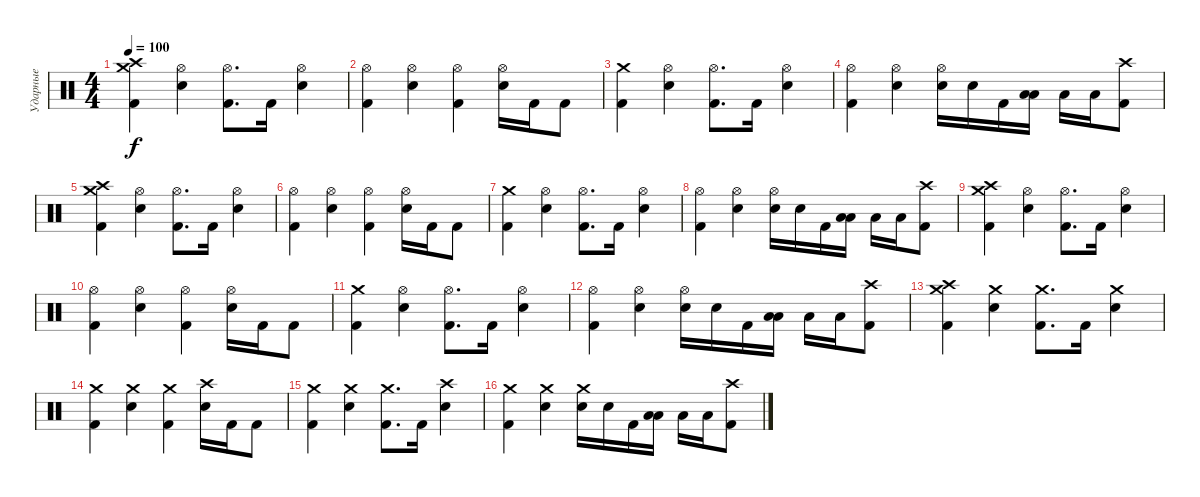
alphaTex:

\track ("Ударные" "Ударные") {instrument percussion}
\staff {score}
\articulation defaults
\ts (4 4)
\tempo 100
\clef neutral
\ks c
("Crash medium (hit)" "Crash high (hit)" "Kick (hit) 2").4{dy f} ("Hi-Hat (open)" "Snare (hit) 2").4 ("Hi-Hat (open)" "Kick (hit) 2").8{d} "Kick (hit) 2".16 ("Hi-Hat (open)" "Snare (hit) 2").4 |
("Hi-Hat (open)" "Kick (hit) 2").4 ("Hi-Hat (open)" "Snare (hit) 2").4 ("Hi-Hat (open)" "Kick (hit) 2").4 ("Hi-Hat (open)" "Snare (hit) 2").16 "Kick (hit) 2".16 "Kick (hit) 2".8 |
("Crash medium (hit)" "Kick (hit) 2").4 ("Hi-Hat (open)" "Snare (hit) 2").4 ("Hi-Hat (open)" "Kick (hit) 2").8{d} "Kick (hit) 2".16 ("Hi-Hat (open)" "Snare (hit) 2").4 |
("Hi-Hat (open)" "Kick (hit) 2").4 ("Hi-Hat (open)" "Snare (hit) 2").4 ("Hi-Hat (open)" "Electric Snare (hit)").16 "Electric Snare (hit)".16 "Kick (hit) 2".16 ("Low Tom (hit)" "Low Floor Tom (hit)").16 "Low Floor Tom (hit)".16 "Low Floor Tom (hit)".16 ("Crash high (hit)" "Kick (hit) 2").8 |
("Crash medium (hit)" "Crash high (hit)" "Kick (hit) 2").4 ("Hi-Hat (open)" "Snare (hit) 2").4 ("Hi-Hat (open)" "Kick (hit) 2").8{d} "Kick (hit) 2".16 ("Hi-Hat (open)" "Snare (hit) 2").4 |
("Hi-Hat (open)" "Kick (hit) 2").4 ("Hi-Hat (open)" "Snare (hit) 2").4 ("Hi-Hat (open)" "Kick (hit) 2").4 ("Hi-Hat (open)" "Snare (hit) 2").16 "Kick (hit) 2".16 "Kick (hit) 2".8 |
("Crash medium (hit)" "Kick (hit) 2").4 ("Hi-Hat (open)" "Snare (hit) 2").4 ("Hi-Hat (open)" "Kick (hit) 2").8{d} "Kick (hit) 2".16 ("Hi-Hat (open)" "Snare (hit) 2").4 |
("Hi-Hat (open)" "Kick (hit) 2").4 ("Hi-Hat (open)" "Snare (hit) 2").4 ("Hi-Hat (open)" "Electric Snare (hit)").16 "Electric Snare (hit)".16 "Kick (hit) 2".16 ("Low Tom (hit)" "Low Floor Tom (hit)").16 "Low Floor Tom (hit)".16 "Low Floor Tom (hit)".16 ("Crash high (hit)" "Kick (hit) 2").8 |
("Crash medium (hit)" "Crash high (hit)" "Kick (hit) 2").4 ("Hi-Hat (open)" "Snare (hit) 2").4 ("Hi-Hat (open)" "Kick (hit) 2").8{d} "Kick (hit) 2".16 ("Hi-Hat (open)" "Snare (hit) 2").4 |
("Hi-Hat (open)" "Kick (hit) 2").4 ("Hi-Hat (open)" "Snare (hit) 2").4 ("Hi-Hat (open)" "Kick (hit) 2").4 ("Hi-Hat (open)" "Snare (hit) 2").16 "Kick (hit) 2".16 "Kick (hit) 2".8 |
("Crash medium (hit)" "Kick (hit) 2").4 ("Hi-Hat (open)" "Snare (hit) 2").4 ("Hi-Hat (open)" "Kick (hit) 2").8{d} "Kick (hit) 2".16 ("Hi-Hat (open)" "Snare (hit) 2").4 |
("Hi-Hat (open)" "Kick (hit) 2").4 ("Hi-Hat (open)" "Snare (hit) 2").4 ("Hi-Hat (open)" "Electric Snare (hit)").16 "Electric Snare (hit)".16 "Kick (hit) 2".16 ("Low Tom (hit)" "Low Floor Tom (hit)").16 "Low Floor Tom (hit)".16 "Low Floor Tom (hit)".16 ("Crash high (hit)" "Kick (hit) 2").8 |
("Crash medium (hit)" "Crash high (hit)" "Kick (hit) 2").4 ("Crash medium (hit)" "Snare (hit) 2").4 ("Crash medium (hit)" "Kick (hit) 2").8{d} "Kick (hit) 2".16 ("Crash medium (hit)" "Snare (hit) 2").4 |
("Crash medium (hit)" "Kick (hit) 2").4 ("Crash medium (hit)" "Snare (hit) 2").4 ("Crash medium (hit)" "Kick (hit) 2").4 ("Crash high (hit)" "Snare (hit) 2").16 "Kick (hit) 2".16 "Kick (hit) 2".8 |
("Crash medium (hit)" "Kick (hit) 2").4 ("Crash medium (hit)" "Snare (hit) 2").4 ("Crash medium (hit)" "Kick (hit) 2").8{d} "Kick (hit) 2".16 ("Crash high (hit)" "Snare (hit) 2").4 |
("Crash medium (hit)" "Kick (hit) 2").4 ("Crash medium (hit)" "Snare (hit) 2").4 ("Crash medium (hit)" "Electric Snare (hit)").16 "Electric Snare (hit)".16 "Kick (hit) 2".16 ("Low Tom (hit)" "Low Floor Tom (hit)").16 "Low Floor Tom (hit)".16 "Low Floor Tom (hit)".16 ("Crash high (hit)" "Kick (hit) 2").8
